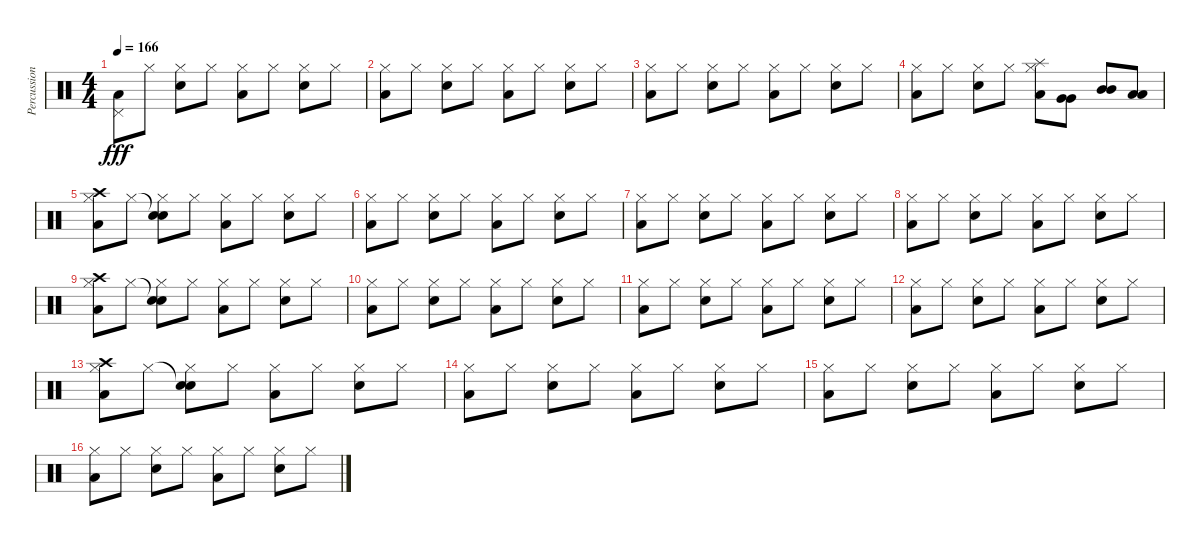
\track ("Percussions" "Percussion") {instrument percussion}
\staff {score}
\articulation defaults
\ts (4 4)
\tempo 166
\clef neutral
\ks c
("Low Tom (hit)" "Pedal Hi-Hat (hit)").8{dy fff} "Hi-Hat (closed)".8 ("Snare (hit) 2" "Hi-Hat (closed)").8 "Hi-Hat (closed)".8 ("Low Tom (hit)" "Hi-Hat (closed)").8 "Hi-Hat (closed)".8 ("Snare (hit) 2" "Hi-Hat (closed)").8 "Hi-Hat (closed)".8 |
("Low Tom (hit)" "Hi-Hat (closed)").8 "Hi-Hat (closed)".8 ("Snare (hit) 2" "Hi-Hat (closed)").8 "Hi-Hat (closed)".8 ("Low Tom (hit)" "Hi-Hat (closed)").8 "Hi-Hat (closed)".8 ("Snare (hit) 2" "Hi-Hat (closed)").8 "Hi-Hat (closed)".8 |
("Low Tom (hit)" "Hi-Hat (closed)").8 "Hi-Hat (closed)".8 ("Snare (hit) 2" "Hi-Hat (closed)").8 "Hi-Hat (closed)".8 ("Low Tom (hit)" "Hi-Hat (closed)").8 "Hi-Hat (closed)".8 ("Snare (hit) 2" "Hi-Hat (closed)").8 "Hi-Hat (closed)".8 |
("Low Tom (hit)" "Hi-Hat (closed)").8 "Hi-Hat (closed)".8 ("Snare (hit) 2" "Hi-Hat (closed)").8 "Hi-Hat (closed)".8 ("Splash (hit)" "Low Tom (hit)" "Hi-Hat (closed)").8 ("Very Low Tom (hit)" "Very Low Tom (hit)").8 ("Mid Tom (hit)" "Mid Tom (hit)").8 ("Low Tom (hit)" "Low Tom (hit)").8 |
("Crash high (hit)" "Low Tom (hit)" "Hi-Hat (closed)").8 "Hi-Hat (closed)".8 ("Snare (hit)"{t} "Snare (hit) 2" "Hi-Hat (closed)").8 "Hi-Hat (closed)".8 ("Low Tom (hit)" "Hi-Hat (closed)").8 "Hi-Hat (closed)".8 ("Snare (hit) 2" "Hi-Hat (closed)").8 "Hi-Hat (closed)".8 |
("Low Tom (hit)" "Hi-Hat (closed)").8 "Hi-Hat (closed)".8 ("Snare (hit) 2" "Hi-Hat (closed)").8 "Hi-Hat (closed)".8 ("Low Tom (hit)" "Hi-Hat (closed)").8 "Hi-Hat (closed)".8 ("Snare (hit) 2" "Hi-Hat (closed)").8 "Hi-Hat (closed)".8 |
("Low Tom (hit)" "Hi-Hat (closed)").8 "Hi-Hat (closed)".8 ("Snare (hit) 2" "Hi-Hat (closed)").8 "Hi-Hat (closed)".8 ("Low Tom (hit)" "Hi-Hat (closed)").8 "Hi-Hat (closed)".8 ("Snare (hit) 2" "Hi-Hat (closed)").8 "Hi-Hat (closed)".8 |
("Low Tom (hit)" "Hi-Hat (closed)").8 "Hi-Hat (closed)".8 ("Snare (hit) 2" "Hi-Hat (closed)").8 "Hi-Hat (closed)".8 ("Low Tom (hit)" "Hi-Hat (closed)").8 "Hi-Hat (closed)".8 ("Snare (hit) 2" "Hi-Hat (closed)").8 "Hi-Hat (closed)".8 |
("Crash high (hit)" "Low Tom (hit)" "Hi-Hat (closed)").8 "Hi-Hat (closed)".8 ("Snare (hit)"{t} "Snare (hit) 2" "Hi-Hat (closed)").8 "Hi-Hat (closed)".8 ("Low Tom (hit)" "Hi-Hat (closed)").8 "Hi-Hat (closed)".8 ("Snare (hit) 2" "Hi-Hat (closed)").8 "Hi-Hat (closed)".8 |
("Low Tom (hit)" "Hi-Hat (closed)").8 "Hi-Hat (closed)".8 ("Snare (hit) 2" "Hi-Hat (closed)").8 "Hi-Hat (closed)".8 ("Low Tom (hit)" "Hi-Hat (closed)").8 "Hi-Hat (closed)".8 ("Snare (hit) 2" "Hi-Hat (closed)").8 "Hi-Hat (closed)".8 |
("Low Tom (hit)" "Hi-Hat (closed)").8 "Hi-Hat (closed)".8 ("Snare (hit) 2" "Hi-Hat (closed)").8 "Hi-Hat (closed)".8 ("Low Tom (hit)" "Hi-Hat (closed)").8 "Hi-Hat (closed)".8 ("Snare (hit) 2" "Hi-Hat (closed)").8 "Hi-Hat (closed)".8 |
("Low Tom (hit)" "Hi-Hat (closed)").8 "Hi-Hat (closed)".8 ("Snare (hit) 2" "Hi-Hat (closed)").8 "Hi-Hat (closed)".8 ("Low Tom (hit)" "Hi-Hat (closed)").8 "Hi-Hat (closed)".8 ("Snare (hit) 2" "Hi-Hat (closed)").8 "Hi-Hat (closed)".8 |
("Crash high (hit)" "Low Tom (hit)" "Hi-Hat (closed)").8 "Hi-Hat (closed)".8 ("Snare (hit)"{t} "Snare (hit) 2" "Hi-Hat (closed)").8 "Hi-Hat (closed)".8 ("Low Tom (hit)" "Hi-Hat (closed)").8 "Hi-Hat (closed)".8 ("Snare (hit) 2" "Hi-Hat (closed)").8 "Hi-Hat (closed)".8 |
("Low Tom (hit)" "Hi-Hat (closed)").8 "Hi-Hat (closed)".8 ("Snare (hit) 2" "Hi-Hat (closed)").8 "Hi-Hat (closed)".8 ("Low Tom (hit)" "Hi-Hat (closed)").8 "Hi-Hat (closed)".8 ("Snare (hit) 2" "Hi-Hat (closed)").8 "Hi-Hat (closed)".8 |
("Low Tom (hit)" "Hi-Hat (closed)").8 "Hi-Hat (closed)".8 ("Snare (hit) 2" "Hi-Hat (closed)").8 "Hi-Hat (closed)".8 ("Low Tom (hit)" "Hi-Hat (closed)").8 "Hi-Hat (closed)".8 ("Snare (hit) 2" "Hi-Hat (closed)").8 "Hi-Hat (closed)".8 |
("Low Tom (hit)" "Hi-Hat (closed)").8 "Hi-Hat (closed)".8 ("Snare (hit) 2" "Hi-Hat (closed)").8 "Hi-Hat (closed)".8 ("Low Tom (hit)" "Hi-Hat (closed)").8 "Hi-Hat (closed)".8 ("Snare (hit) 2" "Hi-Hat (closed)").8 "Hi-Hat (closed)".8
